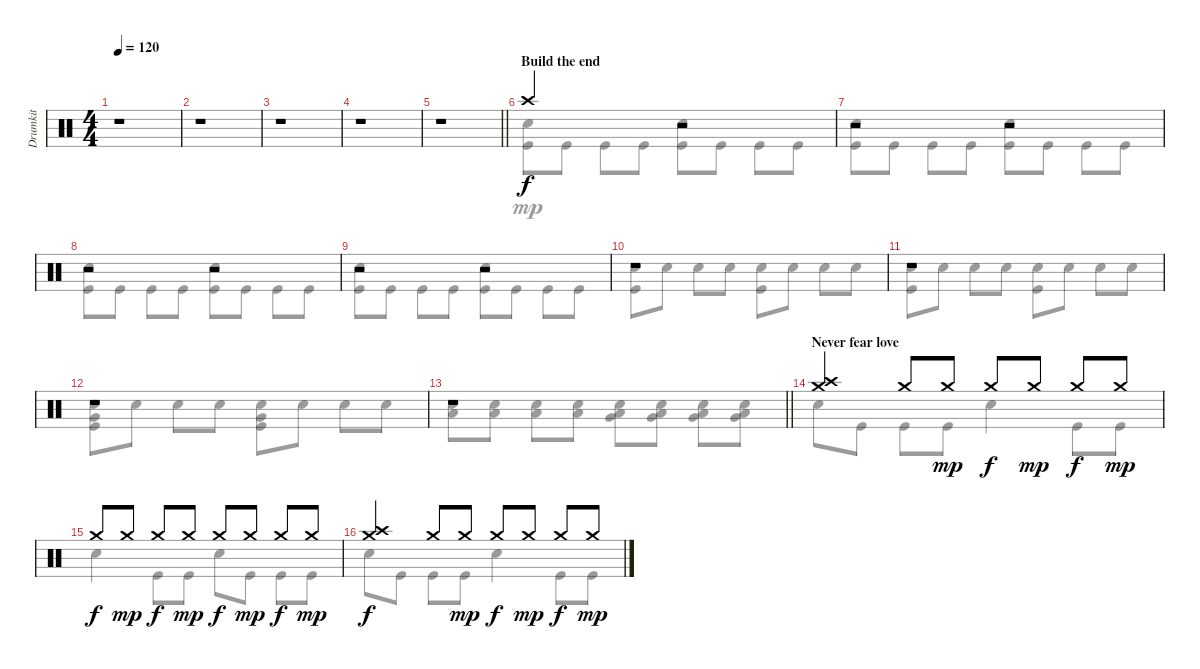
\track ("Drumkit" "Drumkit") {instrument percussion}
\staff {score}
\articulation defaults
\voice
\ts (4 4)
\tempo 120
\clef neutral
\ks c
r.1{dy f} |
r.1 |
r.1 |
r.1 |
\barLineRight lightlight
r.1 |
\section ("" "Build the end")
"Crash high (hit)".2 r.2 |
r.2 r.2 |
r.2 r.2 |
r.2 r.2 |
r.1 |
r.1 |
r.1 |
\barLineRight lightlight
r.1 |
\section ("" "Never fear love")
("Crash medium (hit)" "Crash high (hit)").4 "Crash medium (hit)".8 "Crash medium (hit)".8{dy mp} "Crash medium (hit)".8{dy f} "Crash medium (hit)".8{dy mp} "Crash medium (hit)".8{dy f} "Crash medium (hit)".8{dy mp} |
"Crash medium (hit)".8{dy f} "Crash medium (hit)".8{dy mp} "Crash medium (hit)".8{dy f} "Crash medium (hit)".8{dy mp} "Crash medium (hit)".8{dy f} "Crash medium (hit)".8{dy mp} "Crash medium (hit)".8{dy f} "Crash medium (hit)".8{dy mp} |
("Crash medium (hit)" "Crash high (hit)").4{dy f} "Crash medium (hit)".8 "Crash medium (hit)".8{dy mp} "Crash medium (hit)".8{dy f} "Crash medium (hit)".8{dy mp} "Crash medium (hit)".8{dy f} "Crash medium (hit)".8{dy mp}
\voice
\clef neutral
\ottava regular
\simile none
\ks c
|
|
|
|
\barLineRight lightlight
|
("Snare (hit) 2" "Kick (hit)").8 "Kick (hit)".8 "Kick (hit)".8 "Kick (hit)".8 ("Snare (hit) 2" "Kick (hit)").8 "Kick (hit)".8 "Kick (hit)".8 "Kick (hit)".8 |
("Snare (hit) 2" "Kick (hit)").8 "Kick (hit)".8 "Kick (hit)".8 "Kick (hit)".8 ("Snare (hit) 2" "Kick (hit)").8 "Kick (hit)".8 "Kick (hit)".8 "Kick (hit)".8 |
("Snare (hit) 2" "Kick (hit)").8 "Kick (hit)".8 "Kick (hit)".8 "Kick (hit)".8 ("Snare (hit) 2" "Kick (hit)").8 "Kick (hit)".8 "Kick (hit)".8 "Kick (hit)".8 |
("Snare (hit) 2" "Kick (hit)").8 "Kick (hit)".8 "Kick (hit)".8 "Kick (hit)".8 ("Snare (hit) 2" "Kick (hit)").8 "Kick (hit)".8 "Kick (hit)".8 "Kick (hit)".8 |
("Snare (hit) 2" "Kick (hit)").8 "Snare (hit) 2".8 "Snare (hit) 2".8 "Snare (hit) 2".8 ("Snare (hit) 2" "Kick (hit)").8 "Snare (hit) 2".8 "Snare (hit) 2".8 "Snare (hit) 2".8 |
("Snare (hit) 2" "Kick (hit)").8 "Snare (hit) 2".8 "Snare (hit) 2".8 "Snare (hit) 2".8 ("Snare (hit) 2" "Kick (hit)").8 "Snare (hit) 2".8 "Snare (hit) 2".8 "Snare (hit) 2".8 |
("Very Low Tom (hit)" "Snare (hit) 2" "Kick (hit)").8 "Snare (hit) 2".8 "Snare (hit) 2".8 "Snare (hit) 2".8 ("Very Low Tom (hit)" "Snare (hit) 2" "Kick (hit)").8 "Snare (hit) 2".8 "Snare (hit) 2".8 "Snare (hit) 2".8 |
\barLineRight lightlight
("Low Floor Tom (hit)" "Snare (hit) 2").8 ("Low Floor Tom (hit)" "Snare (hit) 2").8 ("Low Floor Tom (hit)" "Snare (hit) 2").8 ("Low Floor Tom (hit)" "Snare (hit) 2").8 ("Very Low Tom (hit)" "Snare (hit) 2" "Low Floor Tom (hit)").8 ("Very Low Tom (hit)" "Snare (hit) 2" "Low Floor Tom (hit)").8 ("Very Low Tom (hit)" "Snare (hit) 2" "Low Floor Tom (hit)").8 ("Very Low Tom (hit)" "Snare (hit) 2" "Low Floor Tom (hit)").8 |
"Snare (hit) 2".8 "Kick (hit)".8 "Kick (hit)".8 "Kick (hit)".8 "Snare (hit) 2".4 "Kick (hit)".8 "Kick (hit)".8 |
"Snare (hit) 2".4 "Kick (hit)".8 "Kick (hit)".8 "Snare (hit) 2".8 "Kick (hit)".8 "Kick (hit)".8 "Kick (hit)".8 |
"Snare (hit) 2".8 "Kick (hit)".8 "Kick (hit)".8 "Kick (hit)".8 "Snare (hit) 2".4 "Kick (hit)".8 "Kick (hit)".8
